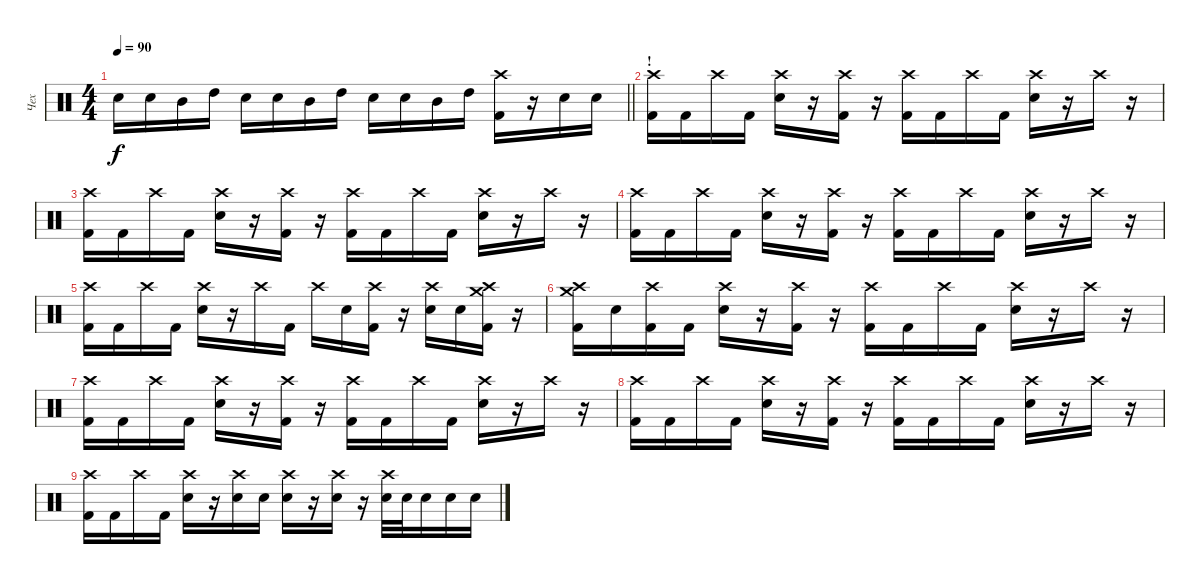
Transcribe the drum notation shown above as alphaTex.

\track ("Чех" "Чех") {instrument percussion}
\staff {score}
\articulation defaults
\ts (4 4)
\tempo 90
\clef neutral
\barLineRight lightlight
\ks c "Snare (hit) 2".16{dy f} "Snare (hit) 2".16 "Mid Tom (hit)".16 "High Tom (hit)".16 "Snare (hit) 2".16 "Snare (hit) 2".16 "Mid Tom (hit)".16 "High Tom (hit)".16 "Snare (hit) 2".16 "Snare (hit) 2".16 "Mid Tom (hit)".16 "High Tom (hit)".16
("Crash high (hit)" "Kick (hit) 2").16 r.16 "Snare (hit) 2".16 "Snare (hit) 2".16 |
\section ("" "!")
("Crash high (hit)" "Kick (hit) 2").16 "Kick (hit) 2".16 "Crash high (hit)".16 "Kick (hit) 2".16 ("Crash high (hit)" "Snare (hit) 2").16 r.16 ("Crash high (hit)" "Kick (hit) 2").16 r.16 ("Crash high (hit)" "Kick (hit) 2").16 "Kick (hit) 2".16 "Crash high (hit)".16 "Kick (hit) 2".16 ("Crash high (hit)" "Snare (hit) 2").16 r.16 "Crash high (hit)".16 r.16 |
("Crash high (hit)" "Kick (hit) 2").16 "Kick (hit) 2".16 "Crash high (hit)".16 "Kick (hit) 2".16 ("Crash high (hit)" "Snare (hit) 2").16 r.16 ("Crash high (hit)" "Kick (hit) 2").16 r.16 ("Crash high (hit)" "Kick (hit) 2").16 "Kick (hit) 2".16 "Crash high (hit)".16 "Kick (hit) 2".16 ("Crash high (hit)" "Snare (hit) 2").16 r.16 "Crash high (hit)".16 r.16 |
("Crash high (hit)" "Kick (hit) 2").16 "Kick (hit) 2".16 "Crash high (hit)".16 "Kick (hit) 2".16 ("Crash high (hit)" "Snare (hit) 2").16 r.16 ("Crash high (hit)" "Kick (hit) 2").16 r.16 ("Crash high (hit)" "Kick (hit) 2").16 "Kick (hit) 2".16 "Crash high (hit)".16 "Kick (hit) 2".16 ("Crash high (hit)" "Snare (hit) 2").16 r.16 "Crash high (hit)".16 r.16 |
("Crash high (hit)" "Kick (hit) 2").16 "Kick (hit) 2".16 "Crash high (hit)".16 "Kick (hit) 2".16 ("Crash high (hit)" "Snare (hit) 2").16 r.16 "Crash high (hit)".16 "Kick (hit) 2".16 "Crash high (hit)".16 "Snare (hit) 2".16 ("Crash high (hit)" "Kick (hit) 2").16 r.16 ("Crash high (hit)" "Snare (hit) 2").16 "Snare (hit) 2".16 ("Crash high (hit)" "Crash medium (hit)" "Kick (hit) 2").16 r.16 |
("Crash high (hit)" "Crash medium (hit)" "Kick (hit) 2").16 "Snare (hit) 2".16 ("Crash high (hit)" "Kick (hit) 2").16 "Kick (hit) 2".16 ("Crash high (hit)" "Snare (hit) 2").16 r.16 ("Crash high (hit)" "Kick (hit) 2").16 r.16 ("Crash high (hit)" "Kick (hit) 2").16 "Kick (hit) 2".16 "Crash high (hit)".16 "Kick (hit) 2".16 ("Crash high (hit)" "Snare (hit) 2").16 r.16 "Crash high (hit)".16 r.16 |
("Crash high (hit)" "Kick (hit) 2").16 "Kick (hit) 2".16 "Crash high (hit)".16 "Kick (hit) 2".16 ("Crash high (hit)" "Snare (hit) 2").16 r.16 ("Crash high (hit)" "Kick (hit) 2").16 r.16 ("Crash high (hit)" "Kick (hit) 2").16 "Kick (hit) 2".16 "Crash high (hit)".16 "Kick (hit) 2".16 ("Crash high (hit)" "Snare (hit) 2").16 r.16 "Crash high (hit)".16 r.16 |
("Crash high (hit)" "Kick (hit) 2").16 "Kick (hit) 2".16 "Crash high (hit)".16 "Kick (hit) 2".16 ("Crash high (hit)" "Snare (hit) 2").16 r.16 ("Crash high (hit)" "Kick (hit) 2").16 r.16 ("Crash high (hit)" "Kick (hit) 2").16 "Kick (hit) 2".16 "Crash high (hit)".16 "Kick (hit) 2".16 ("Crash high (hit)" "Snare (hit) 2").16 r.16 "Crash high (hit)".16 r.16 |
("Crash high (hit)" "Kick (hit) 2").16 "Kick (hit) 2".16 "Crash high (hit)".16 "Kick (hit) 2".16 ("Crash high (hit)" "Snare (hit) 2").16 r.16 ("Crash high (hit)" "Snare (hit) 2").16 "Snare (hit) 2".16 ("Crash high (hit)" "Snare (hit) 2").16 r.16 ("Crash high (hit)" "Snare (hit) 2").16 r.16 ("Crash high (hit)" "Snare (hit) 2").32 "Snare (hit) 2".32 "Snare (hit) 2".16 "Snare (hit) 2".16 "Snare (hit) 2".16
